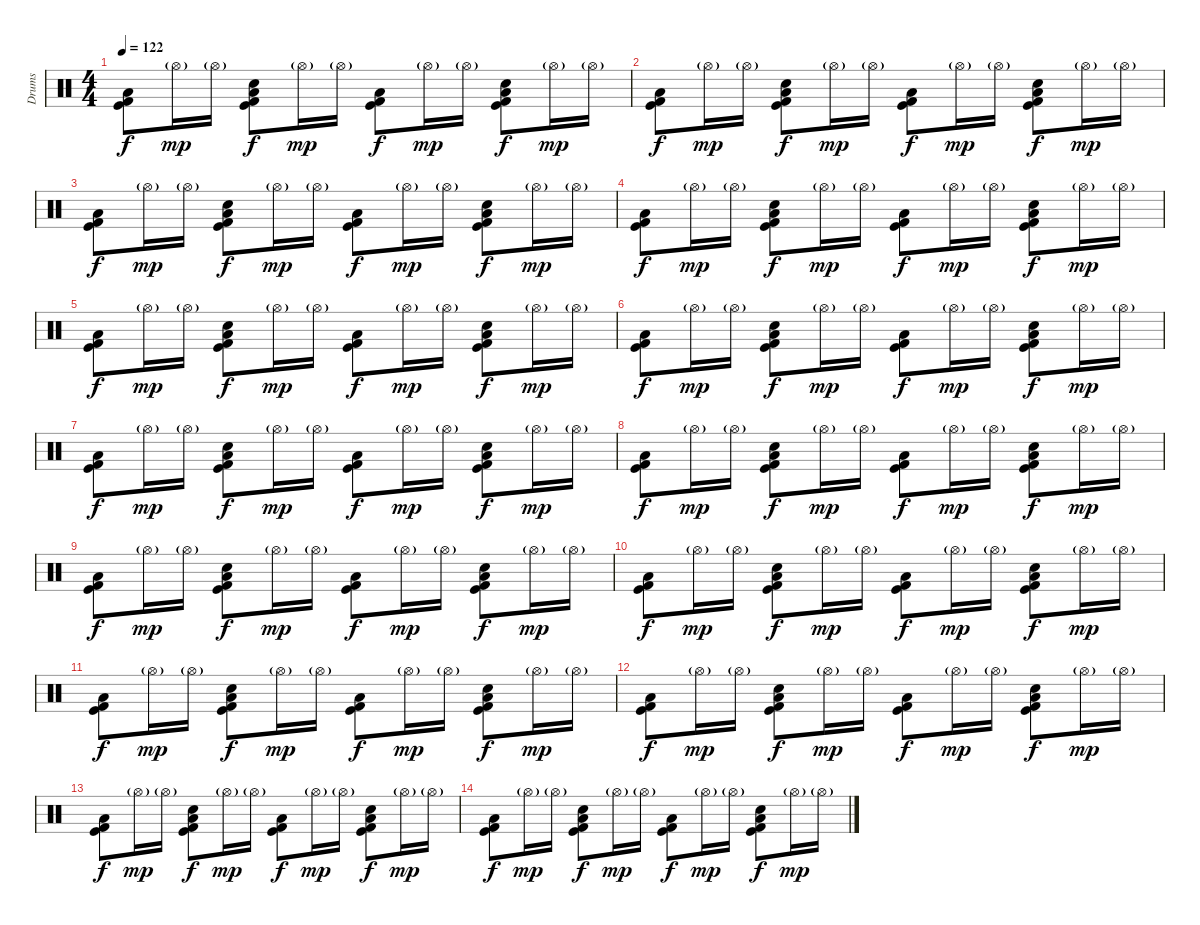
\track ("Drums" "Drums") {instrument percussion}
\staff {score}
\articulation defaults
\ts (4 4)
\tempo 122
\clef neutral
\ks c
("Kick (hit)" "Kick (hit) 2" "Low Floor Tom (hit)").8{dy f volume 16} "Hi-Hat (open)"{g}.16{dy mp} "Hi-Hat (open)"{g}.16 ("Electric Snare (hit)" "Kick (hit)" "Kick (hit) 2" "Low Floor Tom (hit)").8{dy f} "Hi-Hat (open)"{g}.16{dy mp} "Hi-Hat (open)"{g}.16 ("Kick (hit)" "Kick (hit) 2" "Low Floor Tom (hit)").8{dy f} "Hi-Hat (open)"{g}.16{dy mp} "Hi-Hat (open)"{g}.16 ("Electric Snare (hit)" "Kick (hit)" "Kick (hit) 2" "Low Floor Tom (hit)").8{dy f} "Hi-Hat (open)"{g}.16{dy mp} "Hi-Hat (open)"{g}.16 |
("Kick (hit)" "Kick (hit) 2" "Low Floor Tom (hit)").8{dy f} "Hi-Hat (open)"{g}.16{dy mp} "Hi-Hat (open)"{g}.16 ("Electric Snare (hit)" "Kick (hit)" "Kick (hit) 2" "Low Floor Tom (hit)").8{dy f} "Hi-Hat (open)"{g}.16{dy mp} "Hi-Hat (open)"{g}.16 ("Kick (hit)" "Kick (hit) 2" "Low Floor Tom (hit)").8{dy f} "Hi-Hat (open)"{g}.16{dy mp} "Hi-Hat (open)"{g}.16 ("Electric Snare (hit)" "Kick (hit)" "Kick (hit) 2" "Low Floor Tom (hit)").8{dy f} "Hi-Hat (open)"{g}.16{dy mp} "Hi-Hat (open)"{g}.16 |
("Kick (hit)" "Kick (hit) 2" "Low Floor Tom (hit)").8{dy f} "Hi-Hat (open)"{g}.16{dy mp} "Hi-Hat (open)"{g}.16 ("Electric Snare (hit)" "Kick (hit)" "Kick (hit) 2" "Low Floor Tom (hit)").8{dy f} "Hi-Hat (open)"{g}.16{dy mp} "Hi-Hat (open)"{g}.16 ("Kick (hit)" "Kick (hit) 2" "Low Floor Tom (hit)").8{dy f} "Hi-Hat (open)"{g}.16{dy mp} "Hi-Hat (open)"{g}.16 ("Electric Snare (hit)" "Kick (hit)" "Kick (hit) 2" "Low Floor Tom (hit)").8{dy f} "Hi-Hat (open)"{g}.16{dy mp} "Hi-Hat (open)"{g}.16 |
("Kick (hit)" "Kick (hit) 2" "Low Floor Tom (hit)").8{dy f} "Hi-Hat (open)"{g}.16{dy mp} "Hi-Hat (open)"{g}.16 ("Electric Snare (hit)" "Kick (hit)" "Kick (hit) 2" "Low Floor Tom (hit)").8{dy f} "Hi-Hat (open)"{g}.16{dy mp} "Hi-Hat (open)"{g}.16 ("Kick (hit)" "Kick (hit) 2" "Low Floor Tom (hit)").8{dy f} "Hi-Hat (open)"{g}.16{dy mp} "Hi-Hat (open)"{g}.16 ("Electric Snare (hit)" "Kick (hit)" "Kick (hit) 2" "Low Floor Tom (hit)").8{dy f} "Hi-Hat (open)"{g}.16{dy mp} "Hi-Hat (open)"{g}.16 |
("Kick (hit)" "Kick (hit) 2" "Low Floor Tom (hit)").8{dy f} "Hi-Hat (open)"{g}.16{dy mp} "Hi-Hat (open)"{g}.16 ("Electric Snare (hit)" "Kick (hit)" "Kick (hit) 2" "Low Floor Tom (hit)").8{dy f} "Hi-Hat (open)"{g}.16{dy mp} "Hi-Hat (open)"{g}.16 ("Kick (hit)" "Kick (hit) 2" "Low Floor Tom (hit)").8{dy f} "Hi-Hat (open)"{g}.16{dy mp} "Hi-Hat (open)"{g}.16 ("Electric Snare (hit)" "Kick (hit)" "Kick (hit) 2" "Low Floor Tom (hit)").8{dy f} "Hi-Hat (open)"{g}.16{dy mp} "Hi-Hat (open)"{g}.16 |
("Kick (hit)" "Kick (hit) 2" "Low Floor Tom (hit)").8{dy f} "Hi-Hat (open)"{g}.16{dy mp} "Hi-Hat (open)"{g}.16 ("Electric Snare (hit)" "Kick (hit)" "Kick (hit) 2" "Low Floor Tom (hit)").8{dy f} "Hi-Hat (open)"{g}.16{dy mp} "Hi-Hat (open)"{g}.16 ("Kick (hit)" "Kick (hit) 2" "Low Floor Tom (hit)").8{dy f} "Hi-Hat (open)"{g}.16{dy mp} "Hi-Hat (open)"{g}.16 ("Electric Snare (hit)" "Kick (hit)" "Kick (hit) 2" "Low Floor Tom (hit)").8{dy f} "Hi-Hat (open)"{g}.16{dy mp} "Hi-Hat (open)"{g}.16 |
("Kick (hit)" "Kick (hit) 2" "Low Floor Tom (hit)").8{dy f} "Hi-Hat (open)"{g}.16{dy mp} "Hi-Hat (open)"{g}.16 ("Electric Snare (hit)" "Kick (hit)" "Kick (hit) 2" "Low Floor Tom (hit)").8{dy f} "Hi-Hat (open)"{g}.16{dy mp} "Hi-Hat (open)"{g}.16 ("Kick (hit)" "Kick (hit) 2" "Low Floor Tom (hit)").8{dy f} "Hi-Hat (open)"{g}.16{dy mp} "Hi-Hat (open)"{g}.16 ("Electric Snare (hit)" "Kick (hit)" "Kick (hit) 2" "Low Floor Tom (hit)").8{dy f} "Hi-Hat (open)"{g}.16{dy mp} "Hi-Hat (open)"{g}.16 |
("Kick (hit)" "Kick (hit) 2" "Low Floor Tom (hit)").8{dy f} "Hi-Hat (open)"{g}.16{dy mp} "Hi-Hat (open)"{g}.16 ("Electric Snare (hit)" "Kick (hit)" "Kick (hit) 2" "Low Floor Tom (hit)").8{dy f} "Hi-Hat (open)"{g}.16{dy mp} "Hi-Hat (open)"{g}.16 ("Kick (hit)" "Kick (hit) 2" "Low Floor Tom (hit)").8{dy f} "Hi-Hat (open)"{g}.16{dy mp} "Hi-Hat (open)"{g}.16 ("Electric Snare (hit)" "Kick (hit)" "Kick (hit) 2" "Low Floor Tom (hit)").8{dy f} "Hi-Hat (open)"{g}.16{dy mp} "Hi-Hat (open)"{g}.16 |
("Kick (hit)" "Kick (hit) 2" "Low Floor Tom (hit)").8{dy f} "Hi-Hat (open)"{g}.16{dy mp} "Hi-Hat (open)"{g}.16 ("Electric Snare (hit)" "Kick (hit)" "Kick (hit) 2" "Low Floor Tom (hit)").8{dy f} "Hi-Hat (open)"{g}.16{dy mp} "Hi-Hat (open)"{g}.16 ("Kick (hit)" "Kick (hit) 2" "Low Floor Tom (hit)").8{dy f} "Hi-Hat (open)"{g}.16{dy mp} "Hi-Hat (open)"{g}.16 ("Electric Snare (hit)" "Kick (hit)" "Kick (hit) 2" "Low Floor Tom (hit)").8{dy f} "Hi-Hat (open)"{g}.16{dy mp} "Hi-Hat (open)"{g}.16 |
("Kick (hit)" "Kick (hit) 2" "Low Floor Tom (hit)").8{dy f} "Hi-Hat (open)"{g}.16{dy mp} "Hi-Hat (open)"{g}.16 ("Electric Snare (hit)" "Kick (hit)" "Kick (hit) 2" "Low Floor Tom (hit)").8{dy f} "Hi-Hat (open)"{g}.16{dy mp} "Hi-Hat (open)"{g}.16 ("Kick (hit)" "Kick (hit) 2" "Low Floor Tom (hit)").8{dy f} "Hi-Hat (open)"{g}.16{dy mp} "Hi-Hat (open)"{g}.16 ("Electric Snare (hit)" "Kick (hit)" "Kick (hit) 2" "Low Floor Tom (hit)").8{dy f} "Hi-Hat (open)"{g}.16{dy mp} "Hi-Hat (open)"{g}.16 |
("Kick (hit)" "Kick (hit) 2" "Low Floor Tom (hit)").8{dy f} "Hi-Hat (open)"{g}.16{dy mp} "Hi-Hat (open)"{g}.16 ("Electric Snare (hit)" "Kick (hit)" "Kick (hit) 2" "Low Floor Tom (hit)").8{dy f} "Hi-Hat (open)"{g}.16{dy mp} "Hi-Hat (open)"{g}.16 ("Kick (hit)" "Kick (hit) 2" "Low Floor Tom (hit)").8{dy f} "Hi-Hat (open)"{g}.16{dy mp} "Hi-Hat (open)"{g}.16 ("Electric Snare (hit)" "Kick (hit)" "Kick (hit) 2" "Low Floor Tom (hit)").8{dy f} "Hi-Hat (open)"{g}.16{dy mp} "Hi-Hat (open)"{g}.16 |
("Kick (hit)" "Kick (hit) 2" "Low Floor Tom (hit)").8{dy f} "Hi-Hat (open)"{g}.16{dy mp} "Hi-Hat (open)"{g}.16 ("Electric Snare (hit)" "Kick (hit)" "Kick (hit) 2" "Low Floor Tom (hit)").8{dy f} "Hi-Hat (open)"{g}.16{dy mp} "Hi-Hat (open)"{g}.16 ("Kick (hit)" "Kick (hit) 2" "Low Floor Tom (hit)").8{dy f} "Hi-Hat (open)"{g}.16{dy mp} "Hi-Hat (open)"{g}.16 ("Electric Snare (hit)" "Kick (hit)" "Kick (hit) 2" "Low Floor Tom (hit)").8{dy f} "Hi-Hat (open)"{g}.16{dy mp} "Hi-Hat (open)"{g}.16 |
("Kick (hit)" "Kick (hit) 2" "Low Floor Tom (hit)").8{dy f} "Hi-Hat (open)"{g}.16{dy mp} "Hi-Hat (open)"{g}.16 ("Electric Snare (hit)" "Kick (hit)" "Kick (hit) 2" "Low Floor Tom (hit)").8{dy f} "Hi-Hat (open)"{g}.16{dy mp} "Hi-Hat (open)"{g}.16 ("Kick (hit)" "Kick (hit) 2" "Low Floor Tom (hit)").8{dy f} "Hi-Hat (open)"{g}.16{dy mp} "Hi-Hat (open)"{g}.16 ("Electric Snare (hit)" "Kick (hit)" "Kick (hit) 2" "Low Floor Tom (hit)").8{dy f} "Hi-Hat (open)"{g}.16{dy mp} "Hi-Hat (open)"{g}.16 |
("Kick (hit)" "Kick (hit) 2" "Low Floor Tom (hit)").8{dy f} "Hi-Hat (open)"{g}.16{dy mp} "Hi-Hat (open)"{g}.16 ("Electric Snare (hit)" "Kick (hit)" "Kick (hit) 2" "Low Floor Tom (hit)").8{dy f} "Hi-Hat (open)"{g}.16{dy mp} "Hi-Hat (open)"{g}.16 ("Kick (hit)" "Kick (hit) 2" "Low Floor Tom (hit)").8{dy f} "Hi-Hat (open)"{g}.16{dy mp} "Hi-Hat (open)"{g}.16 ("Electric Snare (hit)" "Kick (hit)" "Kick (hit) 2" "Low Floor Tom (hit)").8{dy f} "Hi-Hat (open)"{g}.16{dy mp} "Hi-Hat (open)"{g}.16
